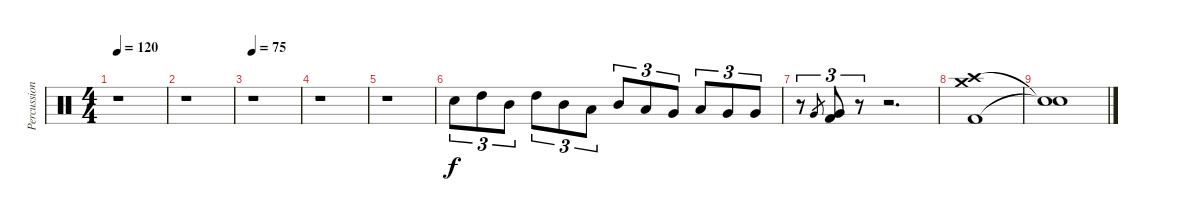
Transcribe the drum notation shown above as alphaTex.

\track ("Percussion" "Percussion") {instrument percussion}
\staff {score}
\articulation defaults
\ts (4 4)
\tempo 120
\clef neutral
\ks c
r.1{dy f} |
r.1 |
\tempo 75
r.1 |
r.1 |
r.1 |
"Snare (hit) 2".8{tu (3 2)} "High Tom (hit)".8{tu (3 2)} "Mid Tom (hit)".8{tu (3 2)} "High Tom (hit)".8{tu (3 2)} "Mid Tom (hit)".8{tu (3 2)} "Low Tom (hit)".8{tu (3 2)} "Mid Tom (hit)".8{tu (3 2)} "Low Tom (hit)".8{tu (3 2)} "Very Low Tom (hit)".8{tu (3 2)} "Low Tom (hit)".8{tu (3 2)} "Very Low Tom (hit)".8{tu (3 2)} "Very Low Tom (hit)".8{tu (3 2)} |
r.8{tu (3 2)} "Very Low Tom (hit)".8{gr} ("Kick (hit) 2" "Very Low Tom (hit)").8{tu (3 2)} r.8{tu (3 2)} r.2{d} |
("Kick (hit) 2" "Crash high (hit)" "Crash medium (hit)").1 |
("Snare (hit)"{t} "Snare (hit)"{t}).1
